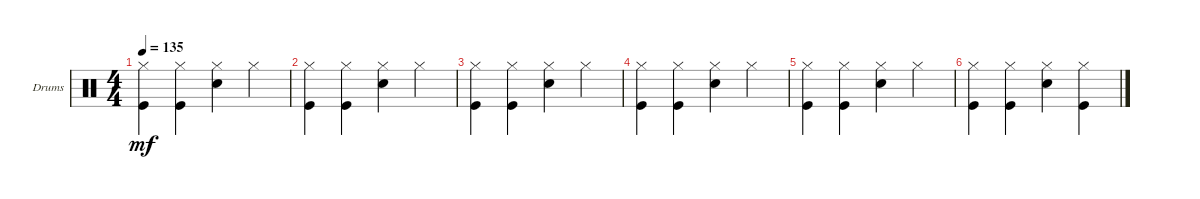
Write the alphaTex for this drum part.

\defaultSystemsLayout 4
\bracketExtendMode groupsimilarinstruments
\firstSystemTrackNameOrientation horizontal
\otherSystemsTrackNameOrientation horizontal
\track ("Drumkit" "Drums") {instrument percussion}
\staff {score}
\articulation defaults
\ts (4 4)
\tempo 135
\clef neutral
\ks c
("Kick (hit)" "Hi-Hat (closed)").4{dy mf} ("Hi-Hat (closed)" "Kick (hit)").4 ("Hi-Hat (closed)" "Snare (hit) 2").4 "Hi-Hat (closed)".4 |
("Kick (hit)" "Hi-Hat (closed)").4 ("Hi-Hat (closed)" "Kick (hit)").4 ("Hi-Hat (closed)" "Snare (hit) 2").4 "Hi-Hat (closed)".4 |
("Kick (hit)" "Hi-Hat (closed)").4 ("Hi-Hat (closed)" "Kick (hit)").4 ("Hi-Hat (closed)" "Snare (hit) 2").4 "Hi-Hat (closed)".4 |
("Kick (hit)" "Hi-Hat (closed)").4 ("Hi-Hat (closed)" "Kick (hit)").4 ("Hi-Hat (closed)" "Snare (hit) 2").4 "Hi-Hat (closed)".4 |
("Kick (hit)" "Hi-Hat (closed)").4 ("Hi-Hat (closed)" "Kick (hit)").4 ("Hi-Hat (closed)" "Snare (hit) 2").4 "Hi-Hat (closed)".4 |
("Kick (hit)" "Hi-Hat (closed)").4 ("Hi-Hat (closed)" "Kick (hit)").4 ("Hi-Hat (closed)" "Snare (hit) 2").4 ("Kick (hit)" "Hi-Hat (closed)").4
